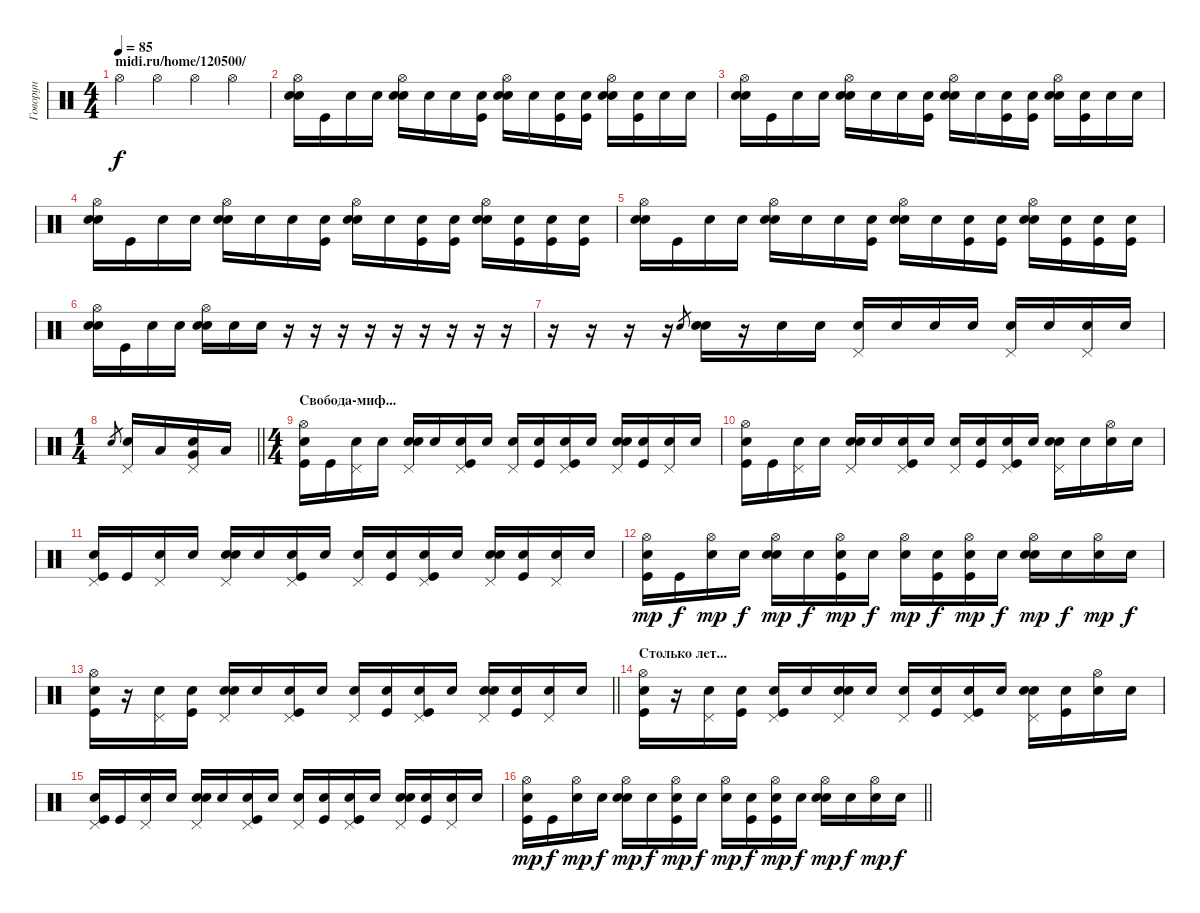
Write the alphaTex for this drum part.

\track ("Говорун" "Говорун") {instrument percussion}
\staff {score}
\articulation defaults
\ts (4 4)
\section ("" "midi.ru/home/120500/")
\tempo 85
\clef neutral
\ks c "Hi-Hat (open)".4{dy f} "Hi-Hat (open)".4 "Hi-Hat (open)".4 "Hi-Hat (open)".4
|
("Snare (hit)"{x} "Hi-Hat (open)" "Snare (hit) 2").16 "Kick (hit)".16 "Snare (hit)"{x}.16 "Snare (hit)"{x}.16 ("Snare (hit)"{x} "Hi-Hat (open)" "Snare (hit) 2").16 "Snare (hit)"{x}.16 "Snare (hit)"{x}.16 ("Snare (hit)"{x} "Kick (hit)").16 ("Snare (hit)"{x} "Hi-Hat (open)" "Snare (hit) 2").16 "Snare (hit)"{x}.16 ("Snare (hit)"{x} "Kick (hit)").16 ("Snare (hit)"{x} "Kick (hit)").16 ("Snare (hit)"{x} "Hi-Hat (open)" "Snare (hit) 2").16 ("Snare (hit)"{x} "Kick (hit)").16 "Snare (hit)"{x}.16 "Snare (hit)"{x}.16 |
("Snare (hit)"{x} "Hi-Hat (open)" "Snare (hit) 2").16 "Kick (hit)".16 "Snare (hit)"{x}.16 "Snare (hit)"{x}.16 ("Snare (hit)"{x} "Hi-Hat (open)" "Snare (hit) 2").16 "Snare (hit)"{x}.16 "Snare (hit)"{x}.16 ("Snare (hit)"{x} "Kick (hit)").16 ("Snare (hit)"{x} "Hi-Hat (open)" "Snare (hit) 2").16 "Snare (hit)"{x}.16 ("Snare (hit)"{x} "Kick (hit)").16 ("Snare (hit)"{x} "Kick (hit)").16 ("Snare (hit)"{x} "Hi-Hat (open)" "Snare (hit) 2").16 ("Snare (hit)"{x} "Kick (hit)").16 "Snare (hit)"{x}.16 "Snare (hit)"{x}.16 |
("Snare (hit)"{x} "Hi-Hat (open)" "Snare (hit) 2").16 "Kick (hit)".16 "Snare (hit)"{x}.16 "Snare (hit)"{x}.16 ("Snare (hit)"{x} "Hi-Hat (open)" "Snare (hit) 2").16 "Snare (hit)"{x}.16 "Snare (hit)"{x}.16 ("Snare (hit)"{x} "Kick (hit)").16 ("Snare (hit)"{x} "Hi-Hat (open)" "Snare (hit) 2").16 "Snare (hit)"{x}.16 ("Snare (hit)"{x} "Kick (hit)").16 ("Snare (hit)"{x} "Kick (hit)").16 ("Snare (hit)"{x} "Hi-Hat (open)" "Snare (hit) 2").16 ("Snare (hit)"{x} "Kick (hit)").16 ("Snare (hit)"{x} "Kick (hit)").16 ("Snare (hit)"{x} "Kick (hit)").16 |
("Snare (hit)"{x} "Hi-Hat (open)" "Snare (hit) 2").16 "Kick (hit)".16 "Snare (hit)"{x}.16 "Snare (hit)"{x}.16 ("Snare (hit)"{x} "Hi-Hat (open)" "Snare (hit) 2").16 "Snare (hit)"{x}.16 "Snare (hit)"{x}.16 ("Snare (hit)"{x} "Kick (hit)").16 ("Snare (hit)"{x} "Hi-Hat (open)" "Snare (hit) 2").16 "Snare (hit)"{x}.16 ("Snare (hit)"{x} "Kick (hit)").16 ("Snare (hit)"{x} "Kick (hit)").16 ("Snare (hit)"{x} "Hi-Hat (open)" "Snare (hit) 2").16 ("Snare (hit)"{x} "Kick (hit)").16 ("Snare (hit)"{x} "Kick (hit)").16 ("Snare (hit)"{x} "Kick (hit)").16 |
("Snare (hit)"{x} "Hi-Hat (open)" "Snare (hit) 2").16 "Kick (hit)".16 "Snare (hit)"{x}.16 "Snare (hit)"{x}.16 ("Snare (hit)"{x} "Hi-Hat (open)" "Snare (hit) 2").16 "Snare (hit)"{x}.16 "Snare (hit)"{x}.16 r.16 r.16 r.16 r.16 r.16 r.16 r.16 r.16 r.16 |
r.16 r.16 r.16 r.16 "Electric Snare (hit)".8{gr} ("Snare (hit)"{x} "Electric Snare (hit)").16 r.16 "Snare (hit)"{x}.16 "Snare (hit)"{x}.16 ("Snare (hit)"{x} "Pedal Hi-Hat (hit)").16 "Snare (hit)"{x}.16 "Snare (hit)"{x}.16 "Snare (hit)"{x}.16 ("Snare (hit)"{x} "Pedal Hi-Hat (hit)").16 "Snare (hit)"{x}.16 ("Snare (hit)"{x} "Pedal Hi-Hat (hit)").16 "Snare (hit)"{x}.16 |
\ts (1 4)
\barLineRight lightlight "Electric Snare (hit)".8{gr}
("Pedal Hi-Hat (hit)" "Electric Snare (hit)").16 "Low Tom (hit)".16 ("Pedal Hi-Hat (hit)" "Very Low Tom (hit)" "Electric Snare (hit)").16 "Low Floor Tom (hit)".16 |
\ts (4 4)
\section ("" "Свобода-миф...")
("Snare (hit)"{x} "Hi-Hat (open)" "Kick (hit)").16 "Kick (hit)".16 ("Snare (hit)"{x} "Pedal Hi-Hat (hit)").16 "Snare (hit)"{x}.16 ("Snare (hit)"{x} "Pedal Hi-Hat (hit)" "Electric Snare (hit)").16 "Snare (hit)"{x}.16 ("Snare (hit)"{x} "Pedal Hi-Hat (hit)" "Kick (hit)").16 "Snare (hit)"{x}.16 ("Snare (hit)"{x} "Pedal Hi-Hat (hit)").16 ("Snare (hit)"{x} "Kick (hit)").16 ("Snare (hit)"{x} "Pedal Hi-Hat (hit)" "Kick (hit)").16 "Snare (hit)"{x}.16 ("Snare (hit)"{x} "Pedal Hi-Hat (hit)" "Electric Snare (hit)").16 ("Snare (hit)"{x} "Kick (hit)").16 ("Snare (hit)"{x} "Pedal Hi-Hat (hit)").16 "Snare (hit)"{x}.16 |
("Snare (hit)"{x} "Hi-Hat (open)" "Kick (hit)").16 "Kick (hit)".16 ("Snare (hit)"{x} "Pedal Hi-Hat (hit)").16 "Snare (hit)"{x}.16 ("Snare (hit)"{x} "Pedal Hi-Hat (hit)" "Electric Snare (hit)").16 "Snare (hit)"{x}.16 ("Snare (hit)"{x} "Pedal Hi-Hat (hit)" "Kick (hit)").16 "Snare (hit)"{x}.16 ("Snare (hit)"{x} "Pedal Hi-Hat (hit)").16 ("Snare (hit)"{x} "Kick (hit)").16 ("Snare (hit)"{x} "Pedal Hi-Hat (hit)" "Kick (hit)").16 "Snare (hit)"{x}.16 ("Snare (hit)"{x} "Pedal Hi-Hat (hit)" "Electric Snare (hit)").16 "Snare (hit)"{x}.16 ("Snare (hit)"{x} "Hi-Hat (open)").16 "Snare (hit)"{x}.16 |
("Snare (hit)"{x} "Pedal Hi-Hat (hit)" "Kick (hit)").16 "Kick (hit)".16 ("Snare (hit)"{x} "Pedal Hi-Hat (hit)").16 "Snare (hit)"{x}.16 ("Snare (hit)"{x} "Pedal Hi-Hat (hit)" "Electric Snare (hit)").16 "Snare (hit)"{x}.16 ("Snare (hit)"{x} "Pedal Hi-Hat (hit)" "Kick (hit)").16 "Snare (hit)"{x}.16 ("Snare (hit)"{x} "Pedal Hi-Hat (hit)").16 ("Snare (hit)"{x} "Kick (hit)").16 ("Snare (hit)"{x} "Pedal Hi-Hat (hit)" "Kick (hit)").16 "Snare (hit)"{x}.16 ("Snare (hit)"{x} "Pedal Hi-Hat (hit)" "Electric Snare (hit)").16 ("Snare (hit)"{x} "Kick (hit)").16 ("Snare (hit)"{x} "Pedal Hi-Hat (hit)").16 "Snare (hit)"{x}.16 |
("Snare (hit)"{x} "Hi-Hat (open)" "Kick (hit)").16{dy mp} "Kick (hit)".16{dy f} ("Snare (hit)"{x} "Hi-Hat (open)").16{dy mp} "Snare (hit)"{x}.16{dy f} ("Snare (hit)"{x} "Hi-Hat (open)" "Electric Snare (hit)").16{dy mp} "Snare (hit)"{x}.16{dy f} ("Snare (hit)"{x} "Hi-Hat (open)" "Kick (hit)").16{dy mp} "Snare (hit)"{x}.16{dy f} ("Snare (hit)"{x} "Hi-Hat (open)").16{dy mp} ("Snare (hit)"{x} "Kick (hit)").16{dy f} ("Snare (hit)"{x} "Hi-Hat (open)" "Kick (hit)").16{dy mp} "Snare (hit)"{x}.16{dy f} ("Snare (hit)"{x} "Hi-Hat (open)" "Electric Snare (hit)").16{dy mp} "Snare (hit)"{x}.16{dy f} ("Snare (hit)"{x} "Hi-Hat (open)").16{dy mp} "Snare (hit)"{x}.16{dy f} |
\barLineRight lightlight
("Snare (hit)"{x} "Hi-Hat (open)" "Kick (hit)").16 r.16 ("Snare (hit)"{x} "Pedal Hi-Hat (hit)").16 ("Snare (hit)"{x} "Kick (hit)").16 ("Snare (hit)"{x} "Pedal Hi-Hat (hit)" "Electric Snare (hit)").16 "Snare (hit)"{x}.16 ("Snare (hit)"{x} "Pedal Hi-Hat (hit)" "Kick (hit)").16 "Snare (hit)"{x}.16 ("Snare (hit)"{x} "Pedal Hi-Hat (hit)").16 ("Snare (hit)"{x} "Kick (hit)").16 ("Snare (hit)"{x} "Pedal Hi-Hat (hit)" "Kick (hit)").16 "Snare (hit)"{x}.16 ("Snare (hit)"{x} "Pedal Hi-Hat (hit)" "Electric Snare (hit)").16 ("Snare (hit)"{x} "Kick (hit)").16 ("Snare (hit)"{x} "Pedal Hi-Hat (hit)").16 "Snare (hit)"{x}.16 |
\section ("" "Столько лет...")
("Snare (hit)"{x} "Hi-Hat (open)" "Kick (hit)").16 r.16 ("Snare (hit)"{x} "Pedal Hi-Hat (hit)").16 ("Snare (hit)"{x} "Kick (hit)").16 ("Snare (hit)"{x} "Pedal Hi-Hat (hit)" "Kick (hit)").16 "Snare (hit)"{x}.16 ("Snare (hit)"{x} "Pedal Hi-Hat (hit)" "Snare (hit) 2").16 "Snare (hit)"{x}.16 ("Snare (hit)"{x} "Pedal Hi-Hat (hit)").16 ("Snare (hit)"{x} "Kick (hit)").16 ("Snare (hit)"{x} "Pedal Hi-Hat (hit)" "Kick (hit)").16 "Snare (hit)"{x}.16 ("Snare (hit)"{x} "Pedal Hi-Hat (hit)" "Snare (hit) 2").16 ("Snare (hit)"{x} "Kick (hit)").16 ("Snare (hit)"{x} "Hi-Hat (open)").16 "Snare (hit)"{x}.16 |
("Snare (hit)"{x} "Pedal Hi-Hat (hit)" "Kick (hit)").16 "Kick (hit)".16 ("Snare (hit)"{x} "Pedal Hi-Hat (hit)").16 "Snare (hit)"{x}.16 ("Snare (hit)"{x} "Pedal Hi-Hat (hit)" "Electric Snare (hit)").16 "Snare (hit)"{x}.16 ("Snare (hit)"{x} "Pedal Hi-Hat (hit)" "Kick (hit)").16 "Snare (hit)"{x}.16 ("Snare (hit)"{x} "Pedal Hi-Hat (hit)").16 ("Snare (hit)"{x} "Kick (hit)").16 ("Snare (hit)"{x} "Pedal Hi-Hat (hit)" "Kick (hit)").16 "Snare (hit)"{x}.16 ("Snare (hit)"{x} "Pedal Hi-Hat (hit)" "Electric Snare (hit)").16 ("Snare (hit)"{x} "Kick (hit)").16 ("Snare (hit)"{x} "Pedal Hi-Hat (hit)").16 "Snare (hit)"{x}.16 |
\barLineRight lightlight
("Snare (hit)"{x} "Hi-Hat (open)" "Kick (hit)").16{dy mp} "Kick (hit)".16{dy f} ("Snare (hit)"{x} "Hi-Hat (open)").16{dy mp} "Snare (hit)"{x}.16{dy f} ("Snare (hit)"{x} "Hi-Hat (open)" "Electric Snare (hit)").16{dy mp} "Snare (hit)"{x}.16{dy f} ("Snare (hit)"{x} "Hi-Hat (open)" "Kick (hit)").16{dy mp} "Snare (hit)"{x}.16{dy f} ("Snare (hit)"{x} "Hi-Hat (open)").16{dy mp} ("Snare (hit)"{x} "Kick (hit)").16{dy f} ("Snare (hit)"{x} "Hi-Hat (open)" "Kick (hit)").16{dy mp} "Snare (hit)"{x}.16{dy f} ("Snare (hit)"{x} "Hi-Hat (open)" "Electric Snare (hit)").16{dy mp} "Snare (hit)"{x}.16{dy f} ("Snare (hit)"{x} "Hi-Hat (open)").16{dy mp} "Snare (hit)"{x}.16{dy f}
